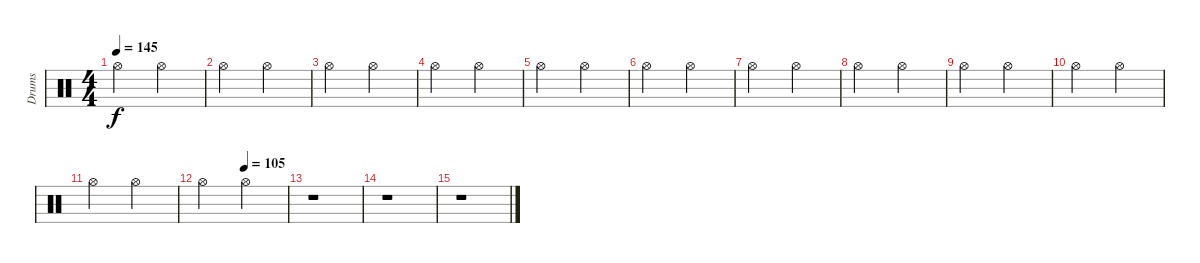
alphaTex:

\track ("Drums" "Drums") {instrument percussion}
\staff {score}
\articulation defaults
\ts (4 4)
\tempo 145
\clef neutral
\ks c "Hi-Hat (open)".2{dy f} "Hi-Hat (open)".2
|
"Hi-Hat (open)".2 "Hi-Hat (open)".2 |
"Hi-Hat (open)".2 "Hi-Hat (open)".2 |
"Hi-Hat (open)".2 "Hi-Hat (open)".2 |
"Hi-Hat (open)".2 "Hi-Hat (open)".2 |
"Hi-Hat (open)".2 "Hi-Hat (open)".2 |
"Hi-Hat (open)".2 "Hi-Hat (open)".2 |
"Hi-Hat (open)".2 "Hi-Hat (open)".2 |
"Hi-Hat (open)".2 "Hi-Hat (open)".2 |
"Hi-Hat (open)".2 "Hi-Hat (open)".2 |
"Hi-Hat (open)".2 "Hi-Hat (open)".2 |
\tempo (105 0.5)
"Hi-Hat (open)".2 "Hi-Hat (open)".2 |
r.1 |
r.1 |
r.1
